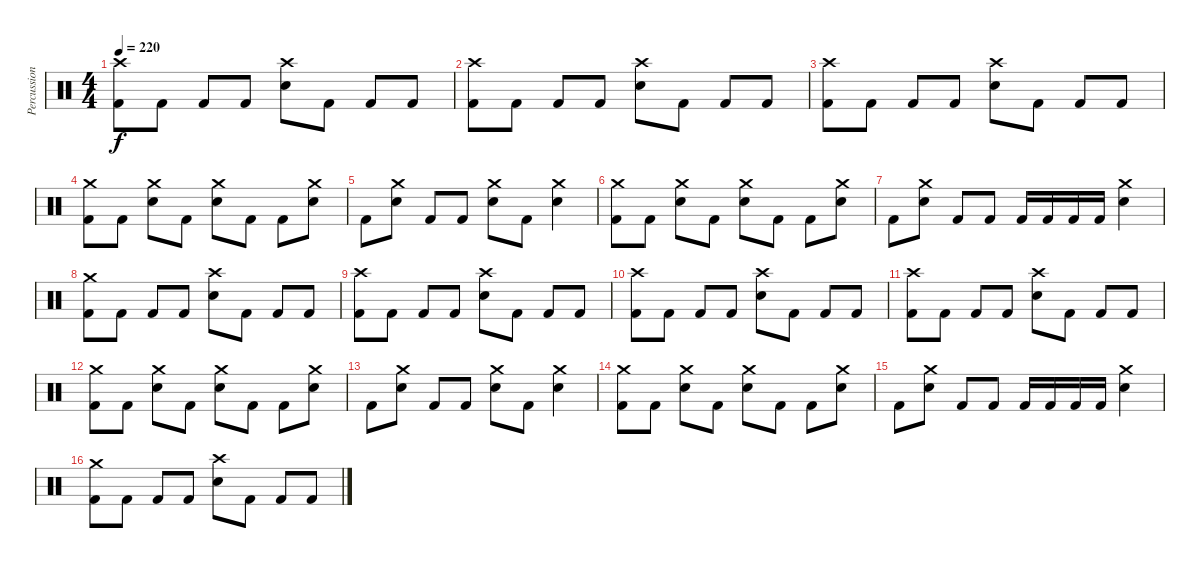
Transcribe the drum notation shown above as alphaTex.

\track ("Percussions" "Percussion") {instrument percussion}
\staff {score}
\articulation defaults
\ts (4 4)
\tempo 220
\clef neutral
\ks c
("Crash high (hit)" "Kick (hit) 2").8{dy f} "Kick (hit) 2".8 "Kick (hit) 2".8 "Kick (hit) 2".8 ("Crash high (hit)" "Electric Snare (hit)").8 "Kick (hit) 2".8 "Kick (hit) 2".8 "Kick (hit) 2".8 |
("Crash high (hit)" "Kick (hit) 2").8 "Kick (hit) 2".8 "Kick (hit) 2".8 "Kick (hit) 2".8 ("Crash high (hit)" "Electric Snare (hit)").8 "Kick (hit) 2".8 "Kick (hit) 2".8 "Kick (hit) 2".8 |
("Crash high (hit)" "Kick (hit) 2").8 "Kick (hit) 2".8 "Kick (hit) 2".8 "Kick (hit) 2".8 ("Crash high (hit)" "Electric Snare (hit)").8 "Kick (hit) 2".8 "Kick (hit) 2".8 "Kick (hit) 2".8 |
("Crash medium (hit)" "Kick (hit) 2").8 "Kick (hit) 2".8 ("Crash medium (hit)" "Electric Snare (hit)").8 "Kick (hit) 2".8 ("Crash medium (hit)" "Electric Snare (hit)").8 "Kick (hit) 2".8 "Kick (hit) 2".8 ("Crash medium (hit)" "Electric Snare (hit)").8 |
"Kick (hit) 2".8 ("Crash medium (hit)" "Electric Snare (hit)").8 "Kick (hit) 2".8 "Kick (hit) 2".8 ("Crash medium (hit)" "Electric Snare (hit)").8 "Kick (hit) 2".8 ("Crash medium (hit)" "Electric Snare (hit)").4 |
("Crash medium (hit)" "Kick (hit) 2").8 "Kick (hit) 2".8 ("Crash medium (hit)" "Electric Snare (hit)").8 "Kick (hit) 2".8 ("Crash medium (hit)" "Electric Snare (hit)").8 "Kick (hit) 2".8 "Kick (hit) 2".8 ("Crash medium (hit)" "Electric Snare (hit)").8 |
"Kick (hit) 2".8 ("Crash medium (hit)" "Electric Snare (hit)").8 "Kick (hit) 2".8 "Kick (hit) 2".8 "Kick (hit) 2".16 "Kick (hit) 2".16 "Kick (hit) 2".16 "Kick (hit) 2".16 ("Crash medium (hit)" "Electric Snare (hit)").4 |
("Crash medium (hit)" "Kick (hit) 2").8 "Kick (hit) 2".8 "Kick (hit) 2".8 "Kick (hit) 2".8 ("Crash high (hit)" "Electric Snare (hit)").8 "Kick (hit) 2".8 "Kick (hit) 2".8 "Kick (hit) 2".8 |
("Crash high (hit)" "Kick (hit) 2").8 "Kick (hit) 2".8 "Kick (hit) 2".8 "Kick (hit) 2".8 ("Crash high (hit)" "Electric Snare (hit)").8 "Kick (hit) 2".8 "Kick (hit) 2".8 "Kick (hit) 2".8 |
("Crash high (hit)" "Kick (hit) 2").8 "Kick (hit) 2".8 "Kick (hit) 2".8 "Kick (hit) 2".8 ("Crash high (hit)" "Electric Snare (hit)").8 "Kick (hit) 2".8 "Kick (hit) 2".8 "Kick (hit) 2".8 |
("Crash high (hit)" "Kick (hit) 2").8 "Kick (hit) 2".8 "Kick (hit) 2".8 "Kick (hit) 2".8 ("Crash high (hit)" "Electric Snare (hit)").8 "Kick (hit) 2".8 "Kick (hit) 2".8 "Kick (hit) 2".8 |
("Crash medium (hit)" "Kick (hit) 2").8 "Kick (hit) 2".8 ("Crash medium (hit)" "Electric Snare (hit)").8 "Kick (hit) 2".8 ("Crash medium (hit)" "Electric Snare (hit)").8 "Kick (hit) 2".8 "Kick (hit) 2".8 ("Crash medium (hit)" "Electric Snare (hit)").8 |
"Kick (hit) 2".8 ("Crash medium (hit)" "Electric Snare (hit)").8 "Kick (hit) 2".8 "Kick (hit) 2".8 ("Crash medium (hit)" "Electric Snare (hit)").8 "Kick (hit) 2".8 ("Crash medium (hit)" "Electric Snare (hit)").4 |
("Crash medium (hit)" "Kick (hit) 2").8 "Kick (hit) 2".8 ("Crash medium (hit)" "Electric Snare (hit)").8 "Kick (hit) 2".8 ("Crash medium (hit)" "Electric Snare (hit)").8 "Kick (hit) 2".8 "Kick (hit) 2".8 ("Crash medium (hit)" "Electric Snare (hit)").8 |
"Kick (hit) 2".8 ("Crash medium (hit)" "Electric Snare (hit)").8 "Kick (hit) 2".8 "Kick (hit) 2".8 "Kick (hit) 2".16 "Kick (hit) 2".16 "Kick (hit) 2".16 "Kick (hit) 2".16 ("Crash medium (hit)" "Electric Snare (hit)").4 |
("Crash medium (hit)" "Kick (hit) 2").8 "Kick (hit) 2".8 "Kick (hit) 2".8 "Kick (hit) 2".8 ("Crash high (hit)" "Electric Snare (hit)").8 "Kick (hit) 2".8 "Kick (hit) 2".8 "Kick (hit) 2".8
